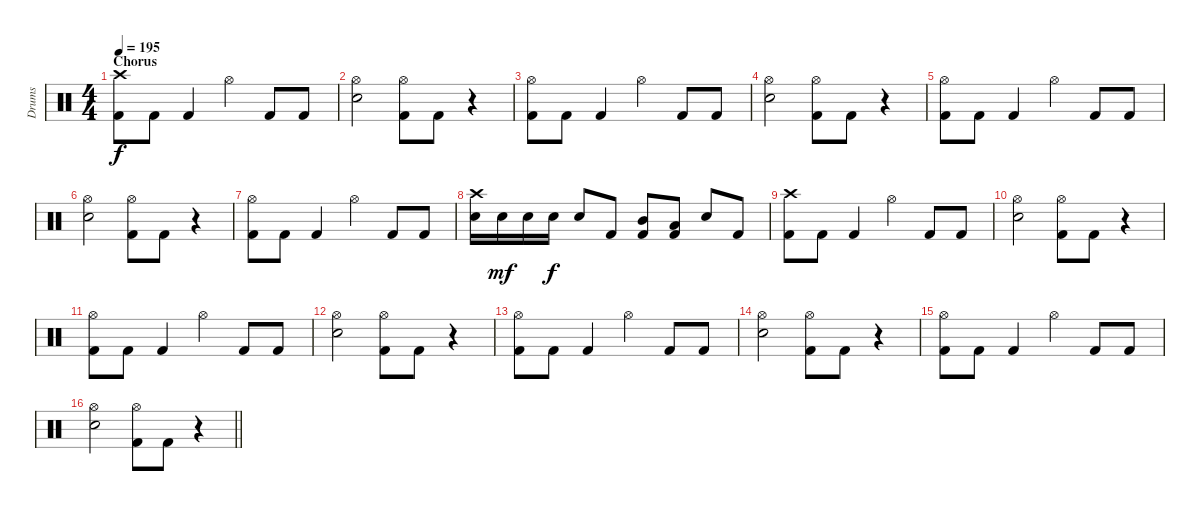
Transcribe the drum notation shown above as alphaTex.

\track ("Drums" "Drums") {instrument percussion}
\staff {score}
\articulation defaults
\ts (4 4)
\section ("" "Chorus")
\tempo 195
\clef neutral
\ks c
("Crash high (hit)" "Kick (hit) 2").8{dy f} "Kick (hit) 2".8 "Kick (hit) 2".4 "Hi-Hat (open)".4 "Kick (hit) 2".8 "Kick (hit) 2".8 |
("Hi-Hat (open)" "Snare (hit) 2").2 ("Hi-Hat (open)" "Kick (hit) 2").8 "Kick (hit) 2".8 r.4 |
("Hi-Hat (open)" "Kick (hit) 2").8 "Kick (hit) 2".8 "Kick (hit) 2".4 "Hi-Hat (open)".4 "Kick (hit) 2".8 "Kick (hit) 2".8 |
("Hi-Hat (open)" "Snare (hit) 2").2 ("Hi-Hat (open)" "Kick (hit) 2").8 "Kick (hit) 2".8 r.4 |
("Hi-Hat (open)" "Kick (hit) 2").8 "Kick (hit) 2".8 "Kick (hit) 2".4 "Hi-Hat (open)".4 "Kick (hit) 2".8 "Kick (hit) 2".8 |
("Hi-Hat (open)" "Snare (hit) 2").2 ("Hi-Hat (open)" "Kick (hit) 2").8 "Kick (hit) 2".8 r.4 |
("Hi-Hat (open)" "Kick (hit) 2").8 "Kick (hit) 2".8 "Kick (hit) 2".4 "Hi-Hat (open)".4 "Kick (hit) 2".8 "Kick (hit) 2".8 |
("Crash high (hit)" "Snare (hit) 2").16 "Snare (hit) 2".16{dy mf} "Snare (hit) 2".16 "Snare (hit) 2".16{dy f} "Snare (hit) 2".8 "Kick (hit) 2".8 ("Mid Tom (hit)" "Kick (hit) 2").8 ("Low Tom (hit)" "Kick (hit) 2").8 "Snare (hit) 2".8 "Kick (hit) 2".8 |
("Crash high (hit)" "Kick (hit) 2").8 "Kick (hit) 2".8 "Kick (hit) 2".4 "Hi-Hat (open)".4 "Kick (hit) 2".8 "Kick (hit) 2".8 |
("Hi-Hat (open)" "Snare (hit) 2").2 ("Hi-Hat (open)" "Kick (hit) 2").8 "Kick (hit) 2".8 r.4 |
("Hi-Hat (open)" "Kick (hit) 2").8 "Kick (hit) 2".8 "Kick (hit) 2".4 "Hi-Hat (open)".4 "Kick (hit) 2".8 "Kick (hit) 2".8 |
("Hi-Hat (open)" "Snare (hit) 2").2 ("Hi-Hat (open)" "Kick (hit) 2").8 "Kick (hit) 2".8 r.4 |
("Hi-Hat (open)" "Kick (hit) 2").8 "Kick (hit) 2".8 "Kick (hit) 2".4 "Hi-Hat (open)".4 "Kick (hit) 2".8 "Kick (hit) 2".8 |
("Hi-Hat (open)" "Snare (hit) 2").2 ("Hi-Hat (open)" "Kick (hit) 2").8 "Kick (hit) 2".8 r.4 |
("Hi-Hat (open)" "Kick (hit) 2").8 "Kick (hit) 2".8 "Kick (hit) 2".4 "Hi-Hat (open)".4 "Kick (hit) 2".8 "Kick (hit) 2".8 |
\barLineRight lightlight
("Hi-Hat (open)" "Snare (hit) 2").2 ("Hi-Hat (open)" "Kick (hit) 2").8 "Kick (hit) 2".8 r.4
